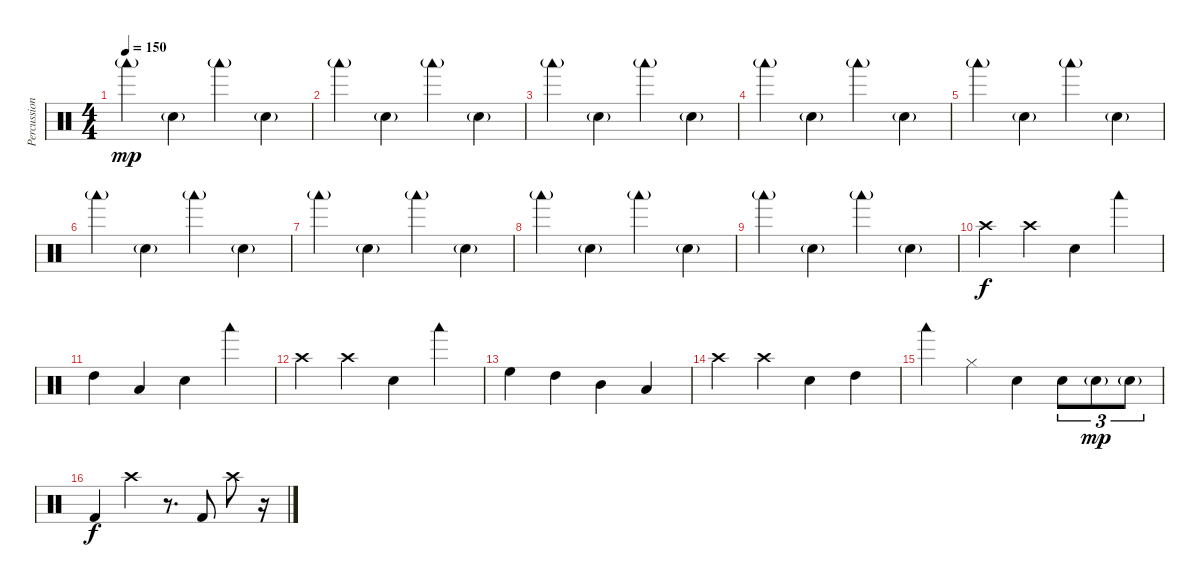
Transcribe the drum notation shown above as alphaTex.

\track ("Percussion" "Percussion") {instrument percussion}
\staff {score}
\articulation defaults
\ts (4 4)
\tempo 150
\clef neutral
\ks c "Woodblock low (hit)"{g}.4{dy mp} "Snare (hit) 2"{g}.4 "Woodblock low (hit)"{g}.4 "Snare (hit) 2"{g}.4
|
"Woodblock low (hit)"{g}.4 "Snare (hit) 2"{g}.4 "Woodblock low (hit)"{g}.4 "Snare (hit) 2"{g}.4 |
"Woodblock low (hit)"{g}.4 "Snare (hit) 2"{g}.4 "Woodblock low (hit)"{g}.4 "Snare (hit) 2"{g}.4 |
"Woodblock low (hit)"{g}.4 "Snare (hit) 2"{g}.4 "Woodblock low (hit)"{g}.4 "Snare (hit) 2"{g}.4 |
"Woodblock low (hit)"{g}.4 "Snare (hit) 2"{g}.4 "Woodblock low (hit)"{g}.4 "Snare (hit) 2"{g}.4 |
"Woodblock low (hit)"{g}.4 "Snare (hit) 2"{g}.4 "Woodblock low (hit)"{g}.4 "Snare (hit) 2"{g}.4 |
"Woodblock low (hit)"{g}.4 "Snare (hit) 2"{g}.4 "Woodblock low (hit)"{g}.4 "Snare (hit) 2"{g}.4 |
"Woodblock low (hit)"{g}.4 "Snare (hit) 2"{g}.4 "Woodblock low (hit)"{g}.4 "Snare (hit) 2"{g}.4 |
"Woodblock low (hit)"{g}.4 "Snare (hit) 2"{g}.4 "Woodblock low (hit)"{g}.4 "Snare (hit) 2"{g}.4 |
"Crash high (hit)".4{dy f} "Crash high (hit)".4 "Snare (hit) 2".4 "Woodblock low (hit)".4 |
"High Tom (hit)".4 "Low Tom (hit)".4 "Snare (hit) 2".4 "Woodblock low (hit)".4 |
"Crash high (hit)".4 "Crash high (hit)".4 "Snare (hit) 2".4 "Woodblock low (hit)".4 |
"High Floor Tom (hit)".4 "High Tom (hit)".4 "Mid Tom (hit)".4 "Low Tom (hit)".4 |
"Crash high (hit)".4 "Crash high (hit)".4 "Snare (hit) 2".4 "High Tom (hit)".4 |
"Woodblock low (hit)".4 "Hi-Hat (closed)".4 "Snare (hit) 2".4 "Snare (hit) 2".8{tu (3 2)} "Snare (hit) 2"{g}.8{tu (3 2) dy mp} "Snare (hit) 2"{g}.8{tu (3 2)} |
"Kick (hit) 2".4{dy f} "Crash high (hit)".4 r.8{d} "Kick (hit) 2".8 "Crash high (hit)".8 r.16
